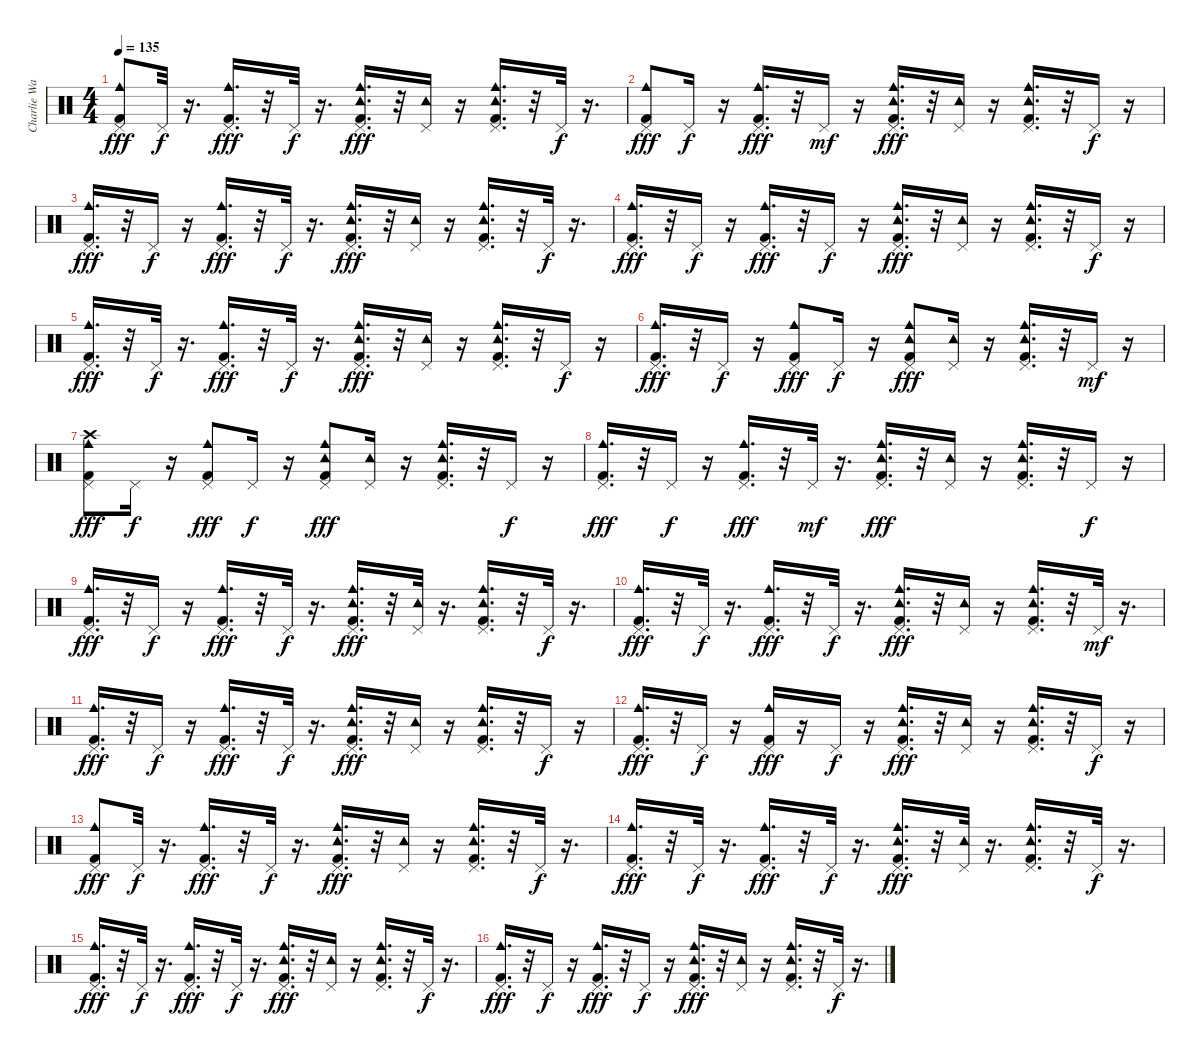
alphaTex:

\track ("Charlie Watts - Drums" "Charlie Wa") {instrument percussion}
\staff {score}
\articulation defaults
\ts (4 4)
\tempo 135
\clef neutral
\ks c
("Kick (hit) 2" "Pedal Hi-Hat (hit)" "Cowbell medium (hit)").8{dy fff} "Pedal Hi-Hat (hit)".32{dy f} r.16{d} ("Kick (hit) 2" "Pedal Hi-Hat (hit)" "Cowbell medium (hit)").16{d dy fff} r.32 "Pedal Hi-Hat (hit)".32{dy f} r.16{d} ("Kick (hit) 2" "Pedal Hi-Hat (hit)" "Tambourine (hit)" "Cowbell medium (hit)").16{d dy fff} r.32 ("Pedal Hi-Hat (hit)" "Tambourine (hit)").16 r.16 ("Kick (hit) 2" "Pedal Hi-Hat (hit)" "Tambourine (hit)" "Cowbell medium (hit)").16{d} r.32 "Pedal Hi-Hat (hit)".32{dy f} r.16{d} |
("Kick (hit) 2" "Pedal Hi-Hat (hit)" "Cowbell medium (hit)").8{dy fff} "Pedal Hi-Hat (hit)".16{dy f} r.16 ("Kick (hit) 2" "Pedal Hi-Hat (hit)" "Cowbell medium (hit)").16{d dy fff} r.32 "Pedal Hi-Hat (hit)".16{dy mf} r.16 ("Kick (hit) 2" "Pedal Hi-Hat (hit)" "Tambourine (hit)" "Cowbell medium (hit)").16{d dy fff} r.32 ("Pedal Hi-Hat (hit)" "Tambourine (hit)").16 r.16 ("Kick (hit) 2" "Pedal Hi-Hat (hit)" "Tambourine (hit)" "Cowbell medium (hit)").16{d} r.32 "Pedal Hi-Hat (hit)".16{dy f} r.16 |
("Kick (hit) 2" "Pedal Hi-Hat (hit)" "Cowbell medium (hit)").16{d dy fff} r.32 "Pedal Hi-Hat (hit)".16{dy f} r.16 ("Kick (hit) 2" "Pedal Hi-Hat (hit)" "Cowbell medium (hit)").16{d dy fff} r.32 "Pedal Hi-Hat (hit)".32{dy f} r.16{d} ("Kick (hit) 2" "Pedal Hi-Hat (hit)" "Tambourine (hit)" "Cowbell medium (hit)").16{d dy fff} r.32 ("Pedal Hi-Hat (hit)" "Tambourine (hit)").16 r.16 ("Kick (hit) 2" "Pedal Hi-Hat (hit)" "Tambourine (hit)" "Cowbell medium (hit)").16{d} r.32 "Pedal Hi-Hat (hit)".32{dy f} r.16{d} |
("Kick (hit) 2" "Pedal Hi-Hat (hit)" "Cowbell medium (hit)").16{d dy fff} r.32 "Pedal Hi-Hat (hit)".16{dy f} r.16 ("Kick (hit) 2" "Pedal Hi-Hat (hit)" "Cowbell medium (hit)").16{d dy fff} r.32 "Pedal Hi-Hat (hit)".16{dy f} r.16 ("Kick (hit) 2" "Pedal Hi-Hat (hit)" "Tambourine (hit)" "Cowbell medium (hit)").16{d dy fff} r.32 ("Pedal Hi-Hat (hit)" "Tambourine (hit)").16 r.16 ("Kick (hit) 2" "Pedal Hi-Hat (hit)" "Tambourine (hit)" "Cowbell medium (hit)").16{d} r.32 "Pedal Hi-Hat (hit)".16{dy f} r.16 |
("Kick (hit) 2" "Pedal Hi-Hat (hit)" "Cowbell medium (hit)").16{d dy fff} r.32 "Pedal Hi-Hat (hit)".32{dy f} r.16{d} ("Kick (hit) 2" "Pedal Hi-Hat (hit)" "Cowbell medium (hit)").16{d dy fff} r.32 "Pedal Hi-Hat (hit)".32{dy f} r.16{d} ("Kick (hit) 2" "Pedal Hi-Hat (hit)" "Tambourine (hit)" "Cowbell medium (hit)").16{d dy fff} r.32 ("Pedal Hi-Hat (hit)" "Tambourine (hit)").16 r.16 ("Kick (hit) 2" "Pedal Hi-Hat (hit)" "Tambourine (hit)" "Cowbell medium (hit)").16{d} r.32 "Pedal Hi-Hat (hit)".16{dy f} r.16 |
("Kick (hit) 2" "Pedal Hi-Hat (hit)" "Cowbell medium (hit)").16{d dy fff} r.32 "Pedal Hi-Hat (hit)".16{dy f} r.16 ("Kick (hit) 2" "Pedal Hi-Hat (hit)" "Cowbell medium (hit)").8{dy fff} "Pedal Hi-Hat (hit)".16{dy f} r.16 ("Kick (hit) 2" "Pedal Hi-Hat (hit)" "Tambourine (hit)" "Cowbell medium (hit)").8{dy fff} ("Pedal Hi-Hat (hit)" "Tambourine (hit)").16 r.16 ("Kick (hit) 2" "Pedal Hi-Hat (hit)" "Tambourine (hit)" "Cowbell medium (hit)").16{d} r.32 "Pedal Hi-Hat (hit)".16{dy mf} r.16 |
("Kick (hit) 2" "Pedal Hi-Hat (hit)" "Crash high (hit)" "Cowbell medium (hit)").8{dy fff} "Pedal Hi-Hat (hit)".16{dy f} r.16 ("Kick (hit) 2" "Pedal Hi-Hat (hit)" "Cowbell medium (hit)").8{dy fff} "Pedal Hi-Hat (hit)".16{dy f} r.16 ("Kick (hit) 2" "Pedal Hi-Hat (hit)" "Tambourine (hit)" "Cowbell medium (hit)").8{dy fff} ("Pedal Hi-Hat (hit)" "Tambourine (hit)").16 r.16 ("Kick (hit) 2" "Pedal Hi-Hat (hit)" "Tambourine (hit)" "Cowbell medium (hit)").16{d} r.32 "Pedal Hi-Hat (hit)".16{dy f} r.16 |
("Kick (hit) 2" "Pedal Hi-Hat (hit)" "Cowbell medium (hit)").16{d dy fff} r.32 "Pedal Hi-Hat (hit)".16{dy f} r.16 ("Kick (hit) 2" "Pedal Hi-Hat (hit)" "Cowbell medium (hit)").16{d dy fff} r.32 "Pedal Hi-Hat (hit)".32{dy mf} r.16{d} ("Kick (hit) 2" "Pedal Hi-Hat (hit)" "Tambourine (hit)" "Cowbell medium (hit)").16{d dy fff} r.32 ("Pedal Hi-Hat (hit)" "Tambourine (hit)").16 r.16 ("Kick (hit) 2" "Pedal Hi-Hat (hit)" "Tambourine (hit)" "Cowbell medium (hit)").16{d} r.32 "Pedal Hi-Hat (hit)".16{dy f} r.16 |
("Kick (hit) 2" "Pedal Hi-Hat (hit)" "Cowbell medium (hit)").16{d dy fff} r.32 "Pedal Hi-Hat (hit)".16{dy f} r.16 ("Kick (hit) 2" "Pedal Hi-Hat (hit)" "Cowbell medium (hit)").16{d dy fff} r.32 "Pedal Hi-Hat (hit)".32{dy f} r.16{d} ("Kick (hit) 2" "Pedal Hi-Hat (hit)" "Tambourine (hit)" "Cowbell medium (hit)").16{d dy fff} r.32 ("Pedal Hi-Hat (hit)" "Tambourine (hit)").32 r.16{d} ("Kick (hit) 2" "Pedal Hi-Hat (hit)" "Tambourine (hit)" "Cowbell medium (hit)").16{d} r.32 "Pedal Hi-Hat (hit)".32{dy f} r.16{d} |
("Kick (hit) 2" "Pedal Hi-Hat (hit)" "Cowbell medium (hit)").16{d dy fff} r.32 "Pedal Hi-Hat (hit)".32{dy f} r.16{d} ("Kick (hit) 2" "Pedal Hi-Hat (hit)" "Cowbell medium (hit)").16{d dy fff} r.32 "Pedal Hi-Hat (hit)".32{dy f} r.16{d} ("Kick (hit) 2" "Pedal Hi-Hat (hit)" "Tambourine (hit)" "Cowbell medium (hit)").16{d dy fff} r.32 ("Pedal Hi-Hat (hit)" "Tambourine (hit)").16 r.16 ("Kick (hit) 2" "Pedal Hi-Hat (hit)" "Tambourine (hit)" "Cowbell medium (hit)").16{d} r.32 "Pedal Hi-Hat (hit)".32{dy mf} r.16{d} |
("Kick (hit) 2" "Pedal Hi-Hat (hit)" "Cowbell medium (hit)").16{d dy fff} r.32 "Pedal Hi-Hat (hit)".16{dy f} r.16 ("Kick (hit) 2" "Pedal Hi-Hat (hit)" "Cowbell medium (hit)").16{d dy fff} r.32 "Pedal Hi-Hat (hit)".32{dy f} r.16{d} ("Kick (hit) 2" "Pedal Hi-Hat (hit)" "Tambourine (hit)" "Cowbell medium (hit)").16{d dy fff} r.32 ("Pedal Hi-Hat (hit)" "Tambourine (hit)").16 r.16 ("Kick (hit) 2" "Pedal Hi-Hat (hit)" "Tambourine (hit)" "Cowbell medium (hit)").16{d} r.32 "Pedal Hi-Hat (hit)".16{dy f} r.16 |
("Kick (hit) 2" "Pedal Hi-Hat (hit)" "Cowbell medium (hit)").16{d dy fff} r.32 "Pedal Hi-Hat (hit)".16{dy f} r.16 ("Kick (hit) 2" "Pedal Hi-Hat (hit)" "Cowbell medium (hit)").16{dy fff} r.16 "Pedal Hi-Hat (hit)".16{dy f} r.16 ("Kick (hit) 2" "Pedal Hi-Hat (hit)" "Tambourine (hit)" "Cowbell medium (hit)").16{d dy fff} r.32 ("Pedal Hi-Hat (hit)" "Tambourine (hit)").16 r.16 ("Kick (hit) 2" "Pedal Hi-Hat (hit)" "Tambourine (hit)" "Cowbell medium (hit)").16{d} r.32 "Pedal Hi-Hat (hit)".16{dy f} r.16 |
("Kick (hit) 2" "Pedal Hi-Hat (hit)" "Cowbell medium (hit)").8{dy fff} "Pedal Hi-Hat (hit)".32{dy f} r.16{d} ("Kick (hit) 2" "Pedal Hi-Hat (hit)" "Cowbell medium (hit)").16{d dy fff} r.32 "Pedal Hi-Hat (hit)".32{dy f} r.16{d} ("Kick (hit) 2" "Pedal Hi-Hat (hit)" "Tambourine (hit)" "Cowbell medium (hit)").16{d dy fff} r.32 ("Pedal Hi-Hat (hit)" "Tambourine (hit)").16 r.16 ("Kick (hit) 2" "Pedal Hi-Hat (hit)" "Tambourine (hit)" "Cowbell medium (hit)").16{d} r.32 "Pedal Hi-Hat (hit)".32{dy f} r.16{d} |
("Kick (hit) 2" "Pedal Hi-Hat (hit)" "Cowbell medium (hit)").16{d dy fff} r.32 "Pedal Hi-Hat (hit)".32{dy f} r.16{d} ("Kick (hit) 2" "Pedal Hi-Hat (hit)" "Cowbell medium (hit)").16{d dy fff} r.32 "Pedal Hi-Hat (hit)".32{dy f} r.16{d} ("Kick (hit) 2" "Pedal Hi-Hat (hit)" "Tambourine (hit)" "Cowbell medium (hit)").16{d dy fff} r.32 ("Pedal Hi-Hat (hit)" "Tambourine (hit)").32 r.16{d} ("Kick (hit) 2" "Pedal Hi-Hat (hit)" "Tambourine (hit)" "Cowbell medium (hit)").16{d} r.32 "Pedal Hi-Hat (hit)".32{dy f} r.16{d} |
("Kick (hit) 2" "Pedal Hi-Hat (hit)" "Cowbell medium (hit)").16{d dy fff} r.32 "Pedal Hi-Hat (hit)".32{dy f} r.16{d} ("Kick (hit) 2" "Pedal Hi-Hat (hit)" "Cowbell medium (hit)").16{d dy fff} r.32 "Pedal Hi-Hat (hit)".32{dy f} r.16{d} ("Kick (hit) 2" "Pedal Hi-Hat (hit)" "Tambourine (hit)" "Cowbell medium (hit)").16{d dy fff} r.32 ("Pedal Hi-Hat (hit)" "Tambourine (hit)").16 r.16 ("Kick (hit) 2" "Pedal Hi-Hat (hit)" "Tambourine (hit)" "Cowbell medium (hit)").16{d} r.32 "Pedal Hi-Hat (hit)".32{dy f} r.16{d} |
("Kick (hit) 2" "Pedal Hi-Hat (hit)" "Cowbell medium (hit)").16{d dy fff} r.32 "Pedal Hi-Hat (hit)".16{dy f} r.16 ("Kick (hit) 2" "Pedal Hi-Hat (hit)" "Cowbell medium (hit)").16{d dy fff} r.32 "Pedal Hi-Hat (hit)".16{dy f} r.16 ("Kick (hit) 2" "Pedal Hi-Hat (hit)" "Tambourine (hit)" "Cowbell medium (hit)").16{d dy fff} r.32 ("Pedal Hi-Hat (hit)" "Tambourine (hit)").16 r.16 ("Kick (hit) 2" "Pedal Hi-Hat (hit)" "Tambourine (hit)" "Cowbell medium (hit)").16{d} r.32 "Pedal Hi-Hat (hit)".32{dy f} r.16{d}
